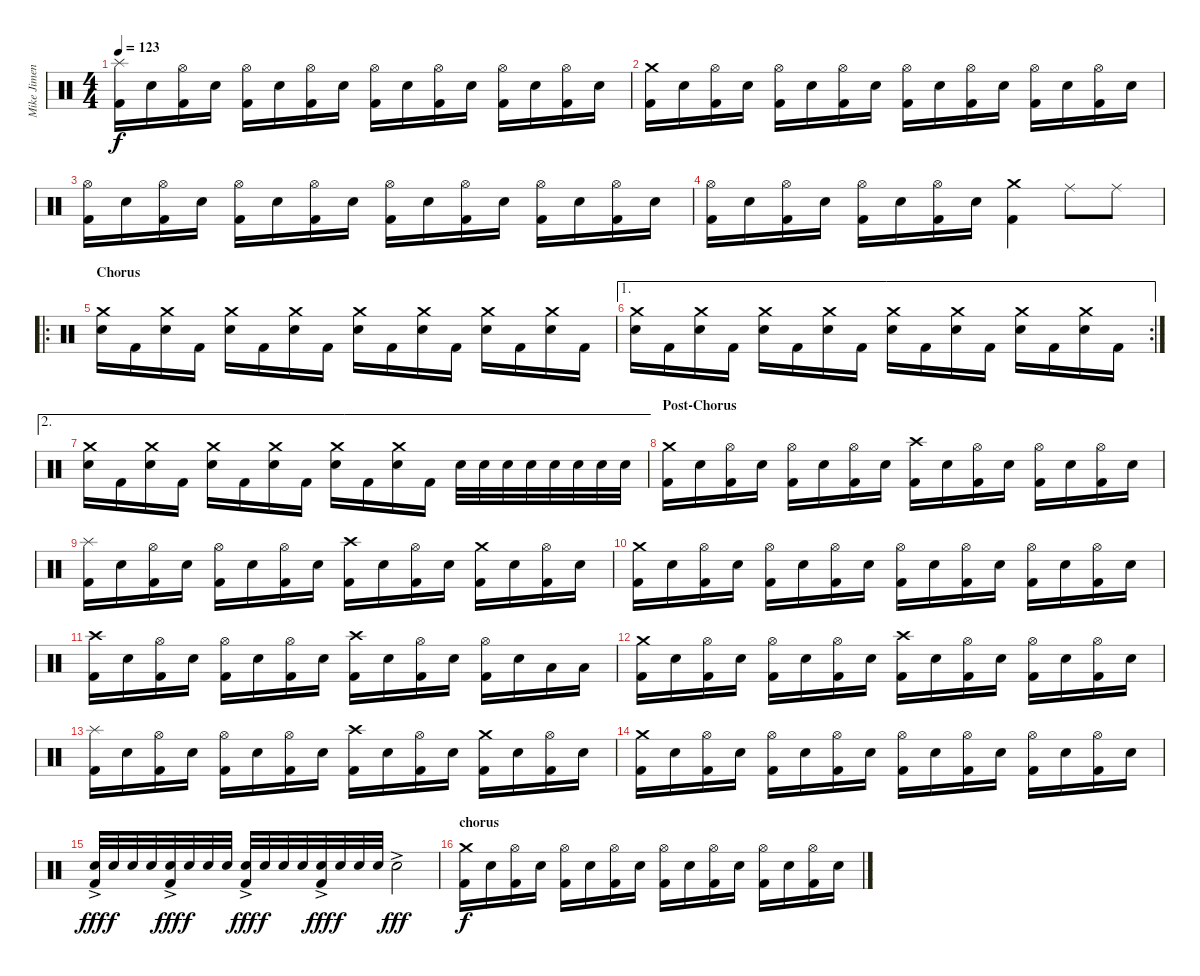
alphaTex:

\track ("Mike Jimenez Drums" "Mike Jimen") {instrument percussion}
\staff {score}
\articulation defaults
\ts (4 4)
\tempo 123
\clef neutral
\ks c
("Splash (hit)" "Kick (hit) 2").16{dy f} "Electric Snare (hit)".16 ("Hi-Hat (open)" "Kick (hit) 2").16 "Electric Snare (hit)".16 ("Hi-Hat (open)" "Kick (hit) 2").16 "Electric Snare (hit)".16 ("Hi-Hat (open)" "Kick (hit) 2").16 "Electric Snare (hit)".16 ("Hi-Hat (open)" "Kick (hit) 2").16 "Electric Snare (hit)".16 ("Hi-Hat (open)" "Kick (hit) 2").16 "Electric Snare (hit)".16 ("Hi-Hat (open)" "Kick (hit) 2").16 "Electric Snare (hit)".16 ("Hi-Hat (open)" "Kick (hit) 2").16 "Electric Snare (hit)".16 |
("Crash medium (hit)" "Kick (hit) 2").16 "Electric Snare (hit)".16 ("Hi-Hat (open)" "Kick (hit) 2").16 "Electric Snare (hit)".16 ("Hi-Hat (open)" "Kick (hit) 2").16 "Electric Snare (hit)".16 ("Hi-Hat (open)" "Kick (hit) 2").16 "Electric Snare (hit)".16 ("Hi-Hat (open)" "Kick (hit) 2").16 "Electric Snare (hit)".16 ("Hi-Hat (open)" "Kick (hit) 2").16 "Electric Snare (hit)".16 ("Hi-Hat (open)" "Kick (hit) 2").16 "Electric Snare (hit)".16 ("Hi-Hat (open)" "Kick (hit) 2").16 "Electric Snare (hit)".16 |
("Hi-Hat (open)" "Kick (hit) 2").16 "Electric Snare (hit)".16 ("Hi-Hat (open)" "Kick (hit) 2").16 "Electric Snare (hit)".16 ("Hi-Hat (open)" "Kick (hit) 2").16 "Electric Snare (hit)".16 ("Hi-Hat (open)" "Kick (hit) 2").16 "Electric Snare (hit)".16 ("Hi-Hat (open)" "Kick (hit) 2").16 "Electric Snare (hit)".16 ("Hi-Hat (open)" "Kick (hit) 2").16 "Electric Snare (hit)".16 ("Hi-Hat (open)" "Kick (hit) 2").16 "Electric Snare (hit)".16 ("Hi-Hat (open)" "Kick (hit) 2").16 "Electric Snare (hit)".16 |
("Hi-Hat (open)" "Kick (hit) 2").16 "Electric Snare (hit)".16 ("Hi-Hat (open)" "Kick (hit) 2").16 "Electric Snare (hit)".16 ("Hi-Hat (open)" "Kick (hit) 2").16 "Electric Snare (hit)".16 ("Hi-Hat (open)" "Kick (hit) 2").16 "Electric Snare (hit)".16 ("Crash medium (hit)" "Kick (hit) 2").4 "Ride (middle)".8 "Ride (middle)".8 |
\ro
\section ("" "Chorus")
("Crash medium (hit)" "Electric Snare (hit)").16 "Kick (hit) 2".16 ("Crash medium (hit)" "Electric Snare (hit)").16 "Kick (hit) 2".16 ("Crash medium (hit)" "Electric Snare (hit)").16 "Kick (hit) 2".16 ("Crash medium (hit)" "Electric Snare (hit)").16 "Kick (hit) 2".16 ("Crash medium (hit)" "Electric Snare (hit)").16 "Kick (hit) 2".16 ("Crash medium (hit)" "Electric Snare (hit)").16 "Kick (hit) 2".16 ("Crash medium (hit)" "Electric Snare (hit)").16 "Kick (hit) 2".16 ("Crash medium (hit)" "Electric Snare (hit)").16 "Kick (hit) 2".16 |
\ae 1
\rc 2
("Crash medium (hit)" "Electric Snare (hit)").16 "Kick (hit) 2".16 ("Crash medium (hit)" "Electric Snare (hit)").16 "Kick (hit) 2".16 ("Crash medium (hit)" "Electric Snare (hit)").16 "Kick (hit) 2".16 ("Crash medium (hit)" "Electric Snare (hit)").16 "Kick (hit) 2".16 ("Crash medium (hit)" "Electric Snare (hit)").16 "Kick (hit) 2".16 ("Crash medium (hit)" "Electric Snare (hit)").16 "Kick (hit) 2".16 ("Crash medium (hit)" "Electric Snare (hit)").16 "Kick (hit) 2".16 ("Crash medium (hit)" "Electric Snare (hit)").16 "Kick (hit) 2".16 |
\ae 2
("Crash medium (hit)" "Electric Snare (hit)").16 "Kick (hit) 2".16 ("Crash medium (hit)" "Electric Snare (hit)").16 "Kick (hit) 2".16 ("Crash medium (hit)" "Electric Snare (hit)").16 "Kick (hit) 2".16 ("Crash medium (hit)" "Electric Snare (hit)").16 "Kick (hit) 2".16 ("Crash medium (hit)" "Electric Snare (hit)").16 "Kick (hit) 2".16 ("Crash medium (hit)" "Electric Snare (hit)").16 "Kick (hit) 2".16 "Electric Snare (hit)".32 "Electric Snare (hit)".32 "Electric Snare (hit)".32 "Electric Snare (hit)".32 "Electric Snare (hit)".32 "Electric Snare (hit)".32 "Electric Snare (hit)".32 "Electric Snare (hit)".32 |
\section ("" "Post-Chorus")
("Crash medium (hit)" "Kick (hit) 2").16 "Electric Snare (hit)".16 ("Hi-Hat (open)" "Kick (hit) 2").16 "Electric Snare (hit)".16 ("Hi-Hat (open)" "Kick (hit) 2").16 "Electric Snare (hit)".16 ("Hi-Hat (open)" "Kick (hit) 2").16 "Electric Snare (hit)".16 ("Crash high (hit)" "Kick (hit) 2").16 "Electric Snare (hit)".16 ("Hi-Hat (open)" "Kick (hit) 2").16 "Electric Snare (hit)".16 ("Hi-Hat (open)" "Kick (hit) 2").16 "Electric Snare (hit)".16 ("Hi-Hat (open)" "Kick (hit) 2").16 "Electric Snare (hit)".16 |
("Splash (hit)" "Kick (hit) 2").16 "Electric Snare (hit)".16 ("Hi-Hat (open)" "Kick (hit) 2").16 "Electric Snare (hit)".16 ("Hi-Hat (open)" "Kick (hit) 2").16 "Electric Snare (hit)".16 ("Hi-Hat (open)" "Kick (hit) 2").16 "Electric Snare (hit)".16 ("Crash high (hit)" "Kick (hit) 2").16 "Electric Snare (hit)".16 ("Hi-Hat (open)" "Kick (hit) 2").16 "Electric Snare (hit)".16 ("Crash medium (hit)" "Kick (hit) 2").16 "Electric Snare (hit)".16 ("Hi-Hat (open)" "Kick (hit) 2").16 "Electric Snare (hit)".16 |
("Crash medium (hit)" "Kick (hit) 2").16 "Electric Snare (hit)".16 ("Hi-Hat (open)" "Kick (hit) 2").16 "Electric Snare (hit)".16 ("Hi-Hat (open)" "Kick (hit) 2").16 "Electric Snare (hit)".16 ("Hi-Hat (open)" "Kick (hit) 2").16 "Electric Snare (hit)".16 ("Hi-Hat (open)" "Kick (hit) 2").16 "Electric Snare (hit)".16 ("Hi-Hat (open)" "Kick (hit) 2").16 "Electric Snare (hit)".16 ("Hi-Hat (open)" "Kick (hit) 2").16 "Electric Snare (hit)".16 ("Hi-Hat (open)" "Kick (hit) 2").16 "Electric Snare (hit)".16 |
("Crash high (hit)" "Kick (hit) 2").16 "Electric Snare (hit)".16 ("Hi-Hat (open)" "Kick (hit) 2").16 "Electric Snare (hit)".16 ("Hi-Hat (open)" "Kick (hit) 2").16 "Electric Snare (hit)".16 ("Hi-Hat (open)" "Kick (hit) 2").16 "Electric Snare (hit)".16 ("Crash high (hit)" "Kick (hit) 2").16 "Electric Snare (hit)".16 ("Hi-Hat (open)" "Kick (hit) 2").16 "Electric Snare (hit)".16 ("Hi-Hat (open)" "Kick (hit) 2").16 "Electric Snare (hit)".16 "Low Tom (hit)".16 "Low Tom (hit)".16 |
("Crash medium (hit)" "Kick (hit) 2").16 "Electric Snare (hit)".16 ("Hi-Hat (open)" "Kick (hit) 2").16 "Electric Snare (hit)".16 ("Hi-Hat (open)" "Kick (hit) 2").16 "Electric Snare (hit)".16 ("Hi-Hat (open)" "Kick (hit) 2").16 "Electric Snare (hit)".16 ("Crash high (hit)" "Kick (hit) 2").16 "Electric Snare (hit)".16 ("Hi-Hat (open)" "Kick (hit) 2").16 "Electric Snare (hit)".16 ("Hi-Hat (open)" "Kick (hit) 2").16 "Electric Snare (hit)".16 ("Hi-Hat (open)" "Kick (hit) 2").16 "Electric Snare (hit)".16 |
("Splash (hit)" "Kick (hit) 2").16 "Electric Snare (hit)".16 ("Hi-Hat (open)" "Kick (hit) 2").16 "Electric Snare (hit)".16 ("Hi-Hat (open)" "Kick (hit) 2").16 "Electric Snare (hit)".16 ("Hi-Hat (open)" "Kick (hit) 2").16 "Electric Snare (hit)".16 ("Crash high (hit)" "Kick (hit) 2").16 "Electric Snare (hit)".16 ("Hi-Hat (open)" "Kick (hit) 2").16 "Electric Snare (hit)".16 ("Crash medium (hit)" "Kick (hit) 2").16 "Electric Snare (hit)".16 ("Hi-Hat (open)" "Kick (hit) 2").16 "Electric Snare (hit)".16 |
("Crash medium (hit)" "Kick (hit) 2").16 "Electric Snare (hit)".16 ("Hi-Hat (open)" "Kick (hit) 2").16 "Electric Snare (hit)".16 ("Hi-Hat (open)" "Kick (hit) 2").16 "Electric Snare (hit)".16 ("Hi-Hat (open)" "Kick (hit) 2").16 "Electric Snare (hit)".16 ("Hi-Hat (open)" "Kick (hit) 2").16 "Electric Snare (hit)".16 ("Hi-Hat (open)" "Kick (hit) 2").16 "Electric Snare (hit)".16 ("Hi-Hat (open)" "Kick (hit) 2").16 "Electric Snare (hit)".16 ("Hi-Hat (open)" "Kick (hit) 2").16 "Electric Snare (hit)".16 |
("Electric Snare (hit)"{ac} "Kick (hit) 2").32{dy fff} "Electric Snare (hit)".32{dy f} "Electric Snare (hit)".32 "Electric Snare (hit)".32 ("Electric Snare (hit)"{ac} "Kick (hit) 2").32{dy fff} "Electric Snare (hit)".32{dy f} "Electric Snare (hit)".32 "Electric Snare (hit)".32 ("Electric Snare (hit)"{ac} "Kick (hit) 2").32{dy fff} "Electric Snare (hit)".32{dy f} "Electric Snare (hit)".32 "Electric Snare (hit)".32 ("Electric Snare (hit)"{ac} "Kick (hit) 2").32{dy fff} "Electric Snare (hit)".32{dy f} "Electric Snare (hit)".32 "Electric Snare (hit)".32 "Electric Snare (hit)"{ac}.2{dy fff} |
\section ("" "chorus")
("Crash medium (hit)" "Kick (hit) 2").16{dy f} "Electric Snare (hit)".16 ("Hi-Hat (open)" "Kick (hit) 2").16 "Electric Snare (hit)".16 ("Hi-Hat (open)" "Kick (hit) 2").16 "Electric Snare (hit)".16 ("Hi-Hat (open)" "Kick (hit) 2").16 "Electric Snare (hit)".16 ("Hi-Hat (open)" "Kick (hit) 2").16 "Electric Snare (hit)".16 ("Hi-Hat (open)" "Kick (hit) 2").16 "Electric Snare (hit)".16 ("Hi-Hat (open)" "Kick (hit) 2").16 "Electric Snare (hit)".16 ("Hi-Hat (open)" "Kick (hit) 2").16 "Electric Snare (hit)".16
